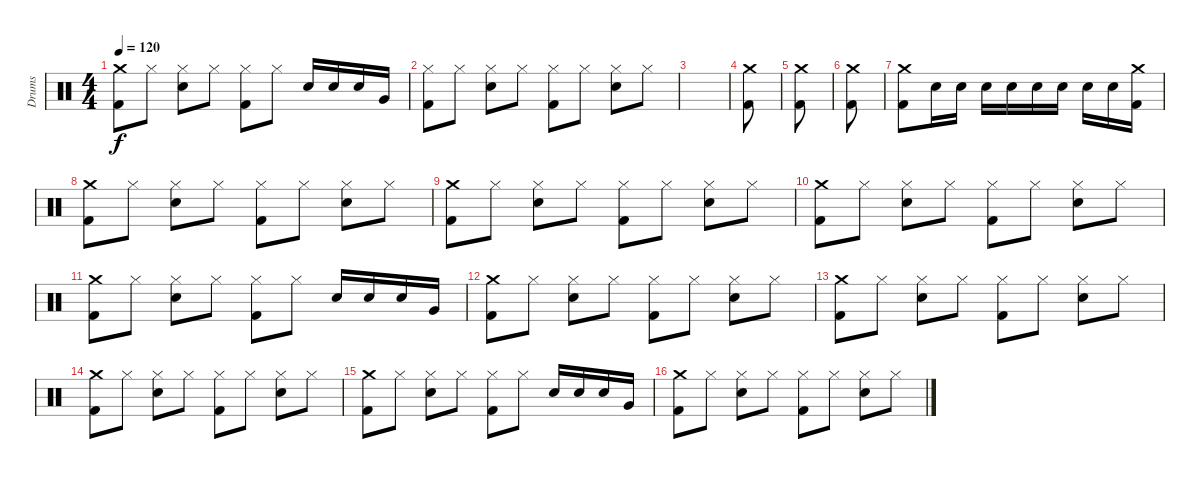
\track ("Drums" "Drums") {instrument percussion}
\staff {score}
\articulation defaults
\ts (4 4)
\tempo 120
\clef neutral
\ks c
("Crash medium (hit)" "Kick (hit) 2").8{dy f} "Hi-Hat (closed)".8 ("Hi-Hat (closed)" "Snare (hit) 2").8 "Hi-Hat (closed)".8 ("Hi-Hat (closed)" "Kick (hit) 2").8 "Hi-Hat (closed)".8 "Snare (hit) 2".16 "Snare (hit) 2".16 "Snare (hit) 2".16 "Very Low Tom (hit)".16 |
("Hi-Hat (closed)" "Kick (hit) 2").8 "Hi-Hat (closed)".8 ("Hi-Hat (closed)" "Snare (hit) 2").8 "Hi-Hat (closed)".8 ("Hi-Hat (closed)" "Kick (hit) 2").8 "Hi-Hat (closed)".8 ("Hi-Hat (closed)" "Snare (hit) 2").8 "Hi-Hat (closed)".8 |
|
("Crash medium (hit)" "Kick (hit) 2").8 |
("Crash medium (hit)" "Kick (hit) 2").8 |
("Crash medium (hit)" "Kick (hit) 2").8 |
("Crash medium (hit)" "Kick (hit) 2").8 "Snare (hit) 2".16 "Snare (hit) 2".16 "Snare (hit) 2".16 "Snare (hit) 2".16 "Snare (hit) 2".16 "Snare (hit) 2".16 "Snare (hit) 2".16 "Snare (hit) 2".16 ("Crash medium (hit)" "Kick (hit) 2").16 |
("Crash medium (hit)" "Kick (hit) 2").8 "Hi-Hat (closed)".8 ("Hi-Hat (closed)" "Snare (hit) 2").8 "Hi-Hat (closed)".8 ("Hi-Hat (closed)" "Kick (hit) 2").8 "Hi-Hat (closed)".8 ("Hi-Hat (closed)" "Snare (hit) 2").8 "Hi-Hat (closed)".8 |
("Crash medium (hit)" "Kick (hit) 2").8 "Hi-Hat (closed)".8 ("Hi-Hat (closed)" "Snare (hit) 2").8 "Hi-Hat (closed)".8 ("Hi-Hat (closed)" "Kick (hit) 2").8 "Hi-Hat (closed)".8 ("Hi-Hat (closed)" "Snare (hit) 2").8 "Hi-Hat (closed)".8 |
("Crash medium (hit)" "Kick (hit) 2").8 "Hi-Hat (closed)".8 ("Hi-Hat (closed)" "Snare (hit) 2").8 "Hi-Hat (closed)".8 ("Hi-Hat (closed)" "Kick (hit) 2").8 "Hi-Hat (closed)".8 ("Hi-Hat (closed)" "Snare (hit) 2").8 "Hi-Hat (closed)".8 |
("Crash medium (hit)" "Kick (hit) 2").8 "Hi-Hat (closed)".8 ("Hi-Hat (closed)" "Snare (hit) 2").8 "Hi-Hat (closed)".8 ("Hi-Hat (closed)" "Kick (hit) 2").8 "Hi-Hat (closed)".8 "Snare (hit) 2".16 "Snare (hit) 2".16 "Snare (hit) 2".16 "Very Low Tom (hit)".16 |
("Crash medium (hit)" "Kick (hit) 2").8 "Hi-Hat (closed)".8 ("Hi-Hat (closed)" "Snare (hit) 2").8 "Hi-Hat (closed)".8 ("Hi-Hat (closed)" "Kick (hit) 2").8 "Hi-Hat (closed)".8 ("Hi-Hat (closed)" "Snare (hit) 2").8 "Hi-Hat (closed)".8 |
("Crash medium (hit)" "Kick (hit) 2").8 "Hi-Hat (closed)".8 ("Hi-Hat (closed)" "Snare (hit) 2").8 "Hi-Hat (closed)".8 ("Hi-Hat (closed)" "Kick (hit) 2").8 "Hi-Hat (closed)".8 ("Hi-Hat (closed)" "Snare (hit) 2").8 "Hi-Hat (closed)".8 |
("Crash medium (hit)" "Kick (hit) 2").8 "Hi-Hat (closed)".8 ("Hi-Hat (closed)" "Snare (hit) 2").8 "Hi-Hat (closed)".8 ("Hi-Hat (closed)" "Kick (hit) 2").8 "Hi-Hat (closed)".8 ("Hi-Hat (closed)" "Snare (hit) 2").8 "Hi-Hat (closed)".8 |
("Crash medium (hit)" "Kick (hit) 2").8 "Hi-Hat (closed)".8 ("Hi-Hat (closed)" "Snare (hit) 2").8 "Hi-Hat (closed)".8 ("Hi-Hat (closed)" "Kick (hit) 2").8 "Hi-Hat (closed)".8 "Snare (hit) 2".16 "Snare (hit) 2".16 "Snare (hit) 2".16 "Very Low Tom (hit)".16 |
("Crash medium (hit)" "Kick (hit) 2").8 "Hi-Hat (closed)".8 ("Hi-Hat (closed)" "Snare (hit) 2").8 "Hi-Hat (closed)".8 ("Hi-Hat (closed)" "Kick (hit) 2").8 "Hi-Hat (closed)".8 ("Hi-Hat (closed)" "Snare (hit) 2").8 "Hi-Hat (closed)".8
